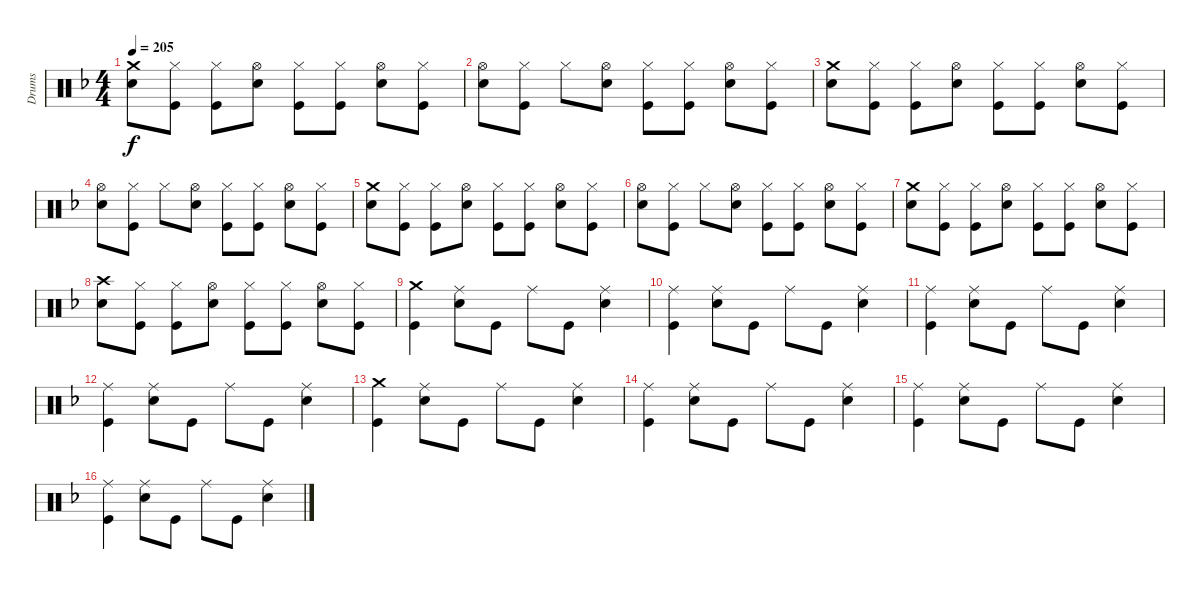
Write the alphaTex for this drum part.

\track ("Drums" "Drums") {instrument percussion}
\staff {score}
\articulation defaults
\ts (4 4)
\tempo 205
\clef neutral
\ks f
("Crash medium (hit)" "Electric Snare (hit)").8{dy f} ("Hi-Hat (closed)" "Kick (hit)").8 ("Hi-Hat (closed)" "Kick (hit)").8 ("Hi-Hat (open)" "Electric Snare (hit)").8 ("Hi-Hat (closed)" "Kick (hit)").8 ("Hi-Hat (closed)" "Kick (hit)").8 ("Hi-Hat (open)" "Electric Snare (hit)").8 ("Hi-Hat (closed)" "Kick (hit)").8 |
("Hi-Hat (open)" "Electric Snare (hit)").8 ("Hi-Hat (closed)" "Kick (hit)").8 "Hi-Hat (closed)".8 ("Hi-Hat (open)" "Electric Snare (hit)").8 ("Hi-Hat (closed)" "Kick (hit)").8 ("Hi-Hat (closed)" "Kick (hit)").8 ("Hi-Hat (open)" "Electric Snare (hit)").8 ("Hi-Hat (closed)" "Kick (hit)").8 |
("Crash medium (hit)" "Electric Snare (hit)").8 ("Hi-Hat (closed)" "Kick (hit)").8 ("Hi-Hat (closed)" "Kick (hit)").8 ("Hi-Hat (open)" "Electric Snare (hit)").8 ("Hi-Hat (closed)" "Kick (hit)").8 ("Hi-Hat (closed)" "Kick (hit)").8 ("Hi-Hat (open)" "Electric Snare (hit)").8 ("Hi-Hat (closed)" "Kick (hit)").8 |
("Hi-Hat (open)" "Electric Snare (hit)").8 ("Hi-Hat (closed)" "Kick (hit)").8 "Hi-Hat (closed)".8 ("Hi-Hat (open)" "Electric Snare (hit)").8 ("Hi-Hat (closed)" "Kick (hit)").8 ("Hi-Hat (closed)" "Kick (hit)").8 ("Hi-Hat (open)" "Electric Snare (hit)").8 ("Hi-Hat (closed)" "Kick (hit)").8 |
("Crash medium (hit)" "Electric Snare (hit)").8 ("Hi-Hat (closed)" "Kick (hit)").8 ("Hi-Hat (closed)" "Kick (hit)").8 ("Hi-Hat (open)" "Electric Snare (hit)").8 ("Hi-Hat (closed)" "Kick (hit)").8 ("Hi-Hat (closed)" "Kick (hit)").8 ("Hi-Hat (open)" "Electric Snare (hit)").8 ("Hi-Hat (closed)" "Kick (hit)").8 |
("Hi-Hat (open)" "Electric Snare (hit)").8 ("Hi-Hat (closed)" "Kick (hit)").8 "Hi-Hat (closed)".8 ("Hi-Hat (open)" "Electric Snare (hit)").8 ("Hi-Hat (closed)" "Kick (hit)").8 ("Hi-Hat (closed)" "Kick (hit)").8 ("Hi-Hat (open)" "Electric Snare (hit)").8 ("Hi-Hat (closed)" "Kick (hit)").8 |
("Crash medium (hit)" "Electric Snare (hit)").8 ("Hi-Hat (closed)" "Kick (hit)").8 ("Hi-Hat (closed)" "Kick (hit)").8 ("Hi-Hat (open)" "Electric Snare (hit)").8 ("Hi-Hat (closed)" "Kick (hit)").8 ("Hi-Hat (closed)" "Kick (hit)").8 ("Hi-Hat (open)" "Electric Snare (hit)").8 ("Hi-Hat (closed)" "Kick (hit)").8 |
("Crash high (hit)" "Electric Snare (hit)").8 ("Hi-Hat (closed)" "Kick (hit)").8 ("Hi-Hat (closed)" "Kick (hit)").8 ("Hi-Hat (open)" "Electric Snare (hit)").8 ("Hi-Hat (closed)" "Kick (hit)").8 ("Hi-Hat (closed)" "Kick (hit)").8 ("Hi-Hat (open)" "Electric Snare (hit)").8 ("Hi-Hat (closed)" "Kick (hit)").8 |
("Crash medium (hit)" "Kick (hit)").4 ("Ride (middle)" "Electric Snare (hit)").8 "Kick (hit)".8 "Ride (middle)".8 "Kick (hit)".8 ("Ride (middle)" "Electric Snare (hit)").4 |
("Ride (middle)" "Kick (hit)").4 ("Ride (middle)" "Electric Snare (hit)").8 "Kick (hit)".8 "Ride (middle)".8 "Kick (hit)".8 ("Ride (middle)" "Electric Snare (hit)").4 |
("Ride (middle)" "Kick (hit)").4 ("Ride (middle)" "Electric Snare (hit)").8 "Kick (hit)".8 "Ride (middle)".8 "Kick (hit)".8 ("Ride (middle)" "Electric Snare (hit)").4 |
("Ride (middle)" "Kick (hit)").4 ("Ride (middle)" "Electric Snare (hit)").8 "Kick (hit)".8 "Ride (middle)".8 "Kick (hit)".8 ("Ride (middle)" "Electric Snare (hit)").4 |
("Crash medium (hit)" "Kick (hit)").4 ("Ride (middle)" "Electric Snare (hit)").8 "Kick (hit)".8 "Ride (middle)".8 "Kick (hit)".8 ("Ride (middle)" "Electric Snare (hit)").4 |
("Ride (middle)" "Kick (hit)").4 ("Ride (middle)" "Electric Snare (hit)").8 "Kick (hit)".8 "Ride (middle)".8 "Kick (hit)".8 ("Ride (middle)" "Electric Snare (hit)").4 |
("Ride (middle)" "Kick (hit)").4 ("Ride (middle)" "Electric Snare (hit)").8 "Kick (hit)".8 "Ride (middle)".8 "Kick (hit)".8 ("Ride (middle)" "Electric Snare (hit)").4 |
("Ride (middle)" "Kick (hit)").4 ("Ride (middle)" "Electric Snare (hit)").8 "Kick (hit)".8 "Ride (middle)".8 "Kick (hit)".8 ("Ride (middle)" "Electric Snare (hit)").4
